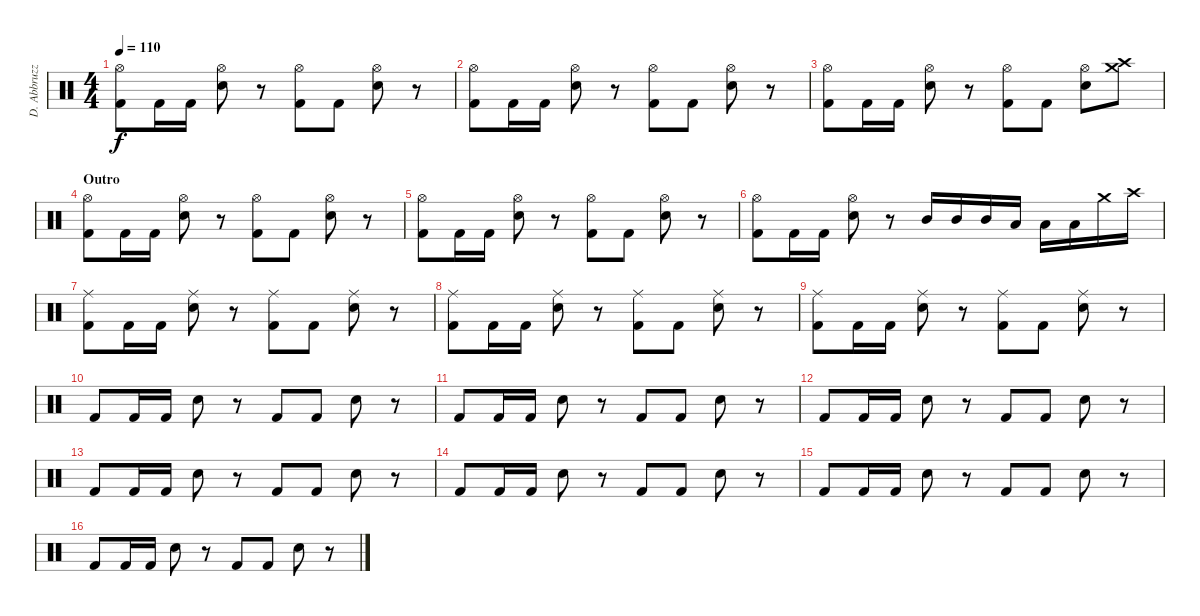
\track ("D. Abbruzzese" "D. Abbruzz") {instrument percussion}
\staff {score}
\articulation defaults
\ts (4 4)
\tempo 110
\clef neutral
\ks c
("Hi-Hat (open)" "Kick (hit) 2").8{dy f} "Kick (hit) 2".16 "Kick (hit) 2".16 ("Hi-Hat (open)" "Snare (hit) 2").8 r.8 ("Hi-Hat (open)" "Kick (hit) 2").8 "Kick (hit) 2".8 ("Hi-Hat (open)" "Snare (hit) 2").8 r.8 |
("Hi-Hat (open)" "Kick (hit) 2").8 "Kick (hit) 2".16 "Kick (hit) 2".16 ("Hi-Hat (open)" "Snare (hit) 2").8 r.8 ("Hi-Hat (open)" "Kick (hit) 2").8 "Kick (hit) 2".8 ("Hi-Hat (open)" "Snare (hit) 2").8 r.8 |
("Hi-Hat (open)" "Kick (hit) 2").8 "Kick (hit) 2".16 "Kick (hit) 2".16 ("Hi-Hat (open)" "Snare (hit) 2").8 r.8 ("Hi-Hat (open)" "Kick (hit) 2").8 "Kick (hit) 2".8 ("Hi-Hat (open)" "Snare (hit) 2").8 ("Crash high (hit)" "Crash medium (hit)").8 |
\section ("" "Outro")
("Hi-Hat (open)" "Kick (hit) 2").8 "Kick (hit) 2".16 "Kick (hit) 2".16 ("Hi-Hat (open)" "Snare (hit) 2").8 r.8 ("Hi-Hat (open)" "Kick (hit) 2").8 "Kick (hit) 2".8 ("Hi-Hat (open)" "Snare (hit) 2").8 r.8 |
("Hi-Hat (open)" "Kick (hit) 2").8 "Kick (hit) 2".16 "Kick (hit) 2".16 ("Hi-Hat (open)" "Snare (hit) 2").8 r.8 ("Hi-Hat (open)" "Kick (hit) 2").8 "Kick (hit) 2".8 ("Hi-Hat (open)" "Snare (hit) 2").8 r.8 |
("Hi-Hat (open)" "Kick (hit) 2").8 "Kick (hit) 2".16 "Kick (hit) 2".16 ("Hi-Hat (open)" "Snare (hit) 2").8 r.8 "Mid Tom (hit)".16 "Mid Tom (hit)".16 "Mid Tom (hit)".16 "Low Tom (hit)".16 "Low Tom (hit)".16 "Low Tom (hit)".16 "Crash medium (hit)".16 "Crash high (hit)".16 |
("Ride (middle)" "Kick (hit) 2").8 "Kick (hit) 2".16 "Kick (hit) 2".16 ("Ride (middle)" "Snare (hit) 2").8 r.8 ("Ride (middle)" "Kick (hit) 2").8 "Kick (hit) 2".8 ("Ride (middle)" "Snare (hit) 2").8 r.8 |
("Ride (middle)" "Kick (hit) 2").8 "Kick (hit) 2".16 "Kick (hit) 2".16 ("Ride (middle)" "Snare (hit) 2").8 r.8 ("Ride (middle)" "Kick (hit) 2").8 "Kick (hit) 2".8 ("Ride (middle)" "Snare (hit) 2").8 r.8 |
("Ride (middle)" "Kick (hit) 2").8 "Kick (hit) 2".16 "Kick (hit) 2".16 ("Ride (middle)" "Snare (hit) 2").8 r.8 ("Ride (middle)" "Kick (hit) 2").8 "Kick (hit) 2".8 ("Ride (middle)" "Snare (hit) 2").8 r.8 |
"Kick (hit) 2".8 "Kick (hit) 2".16 "Kick (hit) 2".16 "Snare (hit) 2".8 r.8 "Kick (hit) 2".8 "Kick (hit) 2".8 "Snare (hit) 2".8 r.8 |
"Kick (hit) 2".8 "Kick (hit) 2".16 "Kick (hit) 2".16 "Snare (hit) 2".8 r.8 "Kick (hit) 2".8 "Kick (hit) 2".8 "Snare (hit) 2".8 r.8 |
"Kick (hit) 2".8 "Kick (hit) 2".16 "Kick (hit) 2".16 "Snare (hit) 2".8 r.8 "Kick (hit) 2".8 "Kick (hit) 2".8 "Snare (hit) 2".8 r.8 |
"Kick (hit) 2".8 "Kick (hit) 2".16 "Kick (hit) 2".16 "Snare (hit) 2".8 r.8 "Kick (hit) 2".8 "Kick (hit) 2".8 "Snare (hit) 2".8 r.8 |
"Kick (hit) 2".8 "Kick (hit) 2".16 "Kick (hit) 2".16 "Snare (hit) 2".8 r.8 "Kick (hit) 2".8 "Kick (hit) 2".8 "Snare (hit) 2".8 r.8 |
"Kick (hit) 2".8 "Kick (hit) 2".16 "Kick (hit) 2".16 "Snare (hit) 2".8 r.8 "Kick (hit) 2".8 "Kick (hit) 2".8 "Snare (hit) 2".8 r.8 |
"Kick (hit) 2".8 "Kick (hit) 2".16 "Kick (hit) 2".16 "Snare (hit) 2".8 r.8 "Kick (hit) 2".8 "Kick (hit) 2".8 "Snare (hit) 2".8 r.8
